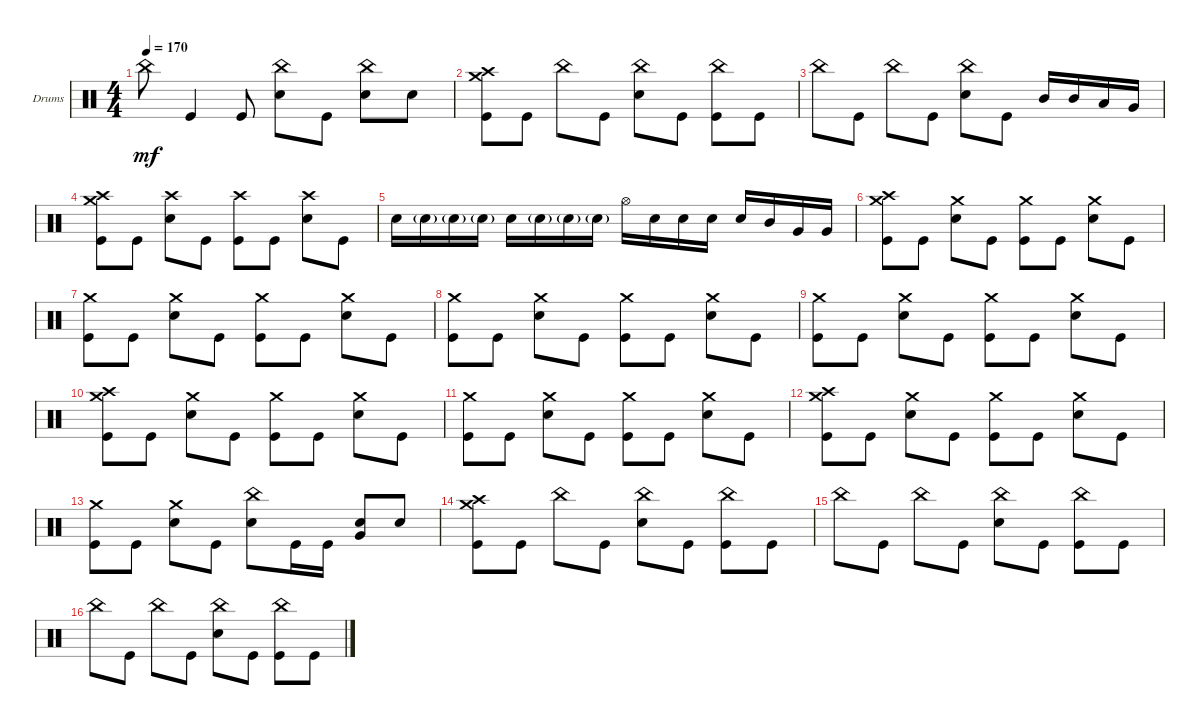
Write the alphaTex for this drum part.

\defaultSystemsLayout 4
\bracketExtendMode groupsimilarinstruments
\firstSystemTrackNameOrientation horizontal
\otherSystemsTrackNameOrientation horizontal
\track ("Drumkit" "Drums") {instrument percussion}
\staff {score}
\articulation defaults
\ts (4 4)
\tempo 170
\clef neutral
\ks c "China (hit)".8{dy mf} "Kick (hit)".4 "Kick (hit)".8
("Snare (hit) 2" "China (hit)").8 "Kick (hit)".8 ("Snare (hit) 2" "China (hit)").8 "Snare (hit) 2".8 |
("Kick (hit)" "Crash high (hit)" "Crash medium (hit)").8 "Kick (hit)".8 "China (hit)".8 "Kick (hit)".8 ("Snare (hit) 2" "China (hit)").8 "Kick (hit)".8 ("Kick (hit)" "China (hit)").8 "Kick (hit)".8 |
"China (hit)".8 "Kick (hit)".8 "China (hit)".8 "Kick (hit)".8 ("Snare (hit) 2" "China (hit)").8 "Kick (hit)".8 "Mid Tom (hit)".16 "Mid Tom (hit)".16 "Low Tom (hit)".16 "Very Low Tom (hit)".16 |
("Kick (hit)" "Crash medium (hit)" "Crash high (hit)").8 "Kick (hit)".8 ("Snare (hit) 2" "Crash high (hit)").8 "Kick (hit)".8 ("Kick (hit)" "Crash high (hit)").8 "Kick (hit)".8 ("Snare (hit) 2" "Crash high (hit)").8 "Kick (hit)".8 |
"Snare (hit) 2".16 "Snare (hit) 2"{g}.16 "Snare (hit) 2"{g}.16 "Snare (hit) 2"{g}.16 "Snare (hit) 2".16 "Snare (hit) 2"{g}.16 "Snare (hit) 2"{g}.16 "Snare (hit) 2"{g}.16 "Hi-Hat (open)".16 "Snare (hit) 2".16 "Snare (hit) 2".16 "Snare (hit) 2".16 "Snare (hit) 2".16 "Mid Tom (hit)".16 "Very Low Tom (hit)".16 "Very Low Tom (hit)".16 |
("Kick (hit)" "Crash high (hit)" "Crash medium (hit)").8 "Kick (hit)".8 ("Snare (hit) 2" "Crash medium (hit)").8 "Kick (hit)".8 ("Kick (hit)" "Crash medium (hit)").8 "Kick (hit)".8 ("Snare (hit) 2" "Crash medium (hit)").8 "Kick (hit)".8 |
("Kick (hit)" "Crash medium (hit)").8 "Kick (hit)".8 ("Snare (hit) 2" "Crash medium (hit)").8 "Kick (hit)".8 ("Kick (hit)" "Crash medium (hit)").8 "Kick (hit)".8 ("Snare (hit) 2" "Crash medium (hit)").8 "Kick (hit)".8 |
("Kick (hit)" "Crash medium (hit)").8 "Kick (hit)".8 ("Snare (hit) 2" "Crash medium (hit)").8 "Kick (hit)".8 ("Kick (hit)" "Crash medium (hit)").8 "Kick (hit)".8 ("Snare (hit) 2" "Crash medium (hit)").8 "Kick (hit)".8 |
("Kick (hit)" "Crash medium (hit)").8 "Kick (hit)".8 ("Snare (hit) 2" "Crash medium (hit)").8 "Kick (hit)".8 ("Kick (hit)" "Crash medium (hit)").8 "Kick (hit)".8 ("Snare (hit) 2" "Crash medium (hit)").8 "Kick (hit)".8 |
("Kick (hit)" "Crash high (hit)" "Crash medium (hit)").8 "Kick (hit)".8 ("Snare (hit) 2" "Crash medium (hit)").8 "Kick (hit)".8 ("Kick (hit)" "Crash medium (hit)").8 "Kick (hit)".8 ("Snare (hit) 2" "Crash medium (hit)").8 "Kick (hit)".8 |
("Kick (hit)" "Crash medium (hit)").8 "Kick (hit)".8 ("Snare (hit) 2" "Crash medium (hit)").8 "Kick (hit)".8 ("Kick (hit)" "Crash medium (hit)").8 "Kick (hit)".8 ("Snare (hit) 2" "Crash medium (hit)").8 "Kick (hit)".8 |
("Kick (hit)" "Crash high (hit)" "Crash medium (hit)").8 "Kick (hit)".8 ("Snare (hit) 2" "Crash medium (hit)").8 "Kick (hit)".8 ("Kick (hit)" "Crash medium (hit)").8 "Kick (hit)".8 ("Snare (hit) 2" "Crash medium (hit)").8 "Kick (hit)".8 |
("Kick (hit)" "Crash medium (hit)").8 "Kick (hit)".8 ("Snare (hit) 2" "Crash medium (hit)").8 "Kick (hit)".8 ("Snare (hit) 2" "China (hit)").8 "Kick (hit)".16 "Kick (hit)".16 ("Snare (hit) 2" "Very Low Tom (hit)").8 "Snare (hit) 2".8 |
("Kick (hit)" "Crash high (hit)" "Crash medium (hit)").8 "Kick (hit)".8 "China (hit)".8 "Kick (hit)".8 ("Snare (hit) 2" "China (hit)").8 "Kick (hit)".8 ("Kick (hit)" "China (hit)").8 "Kick (hit)".8 |
"China (hit)".8 "Kick (hit)".8 "China (hit)".8 "Kick (hit)".8 ("Snare (hit) 2" "China (hit)").8 "Kick (hit)".8 ("Kick (hit)" "China (hit)").8 "Kick (hit)".8 |
"China (hit)".8 "Kick (hit)".8 "China (hit)".8 "Kick (hit)".8 ("Snare (hit) 2" "China (hit)").8 "Kick (hit)".8 ("Kick (hit)" "China (hit)").8 "Kick (hit)".8
